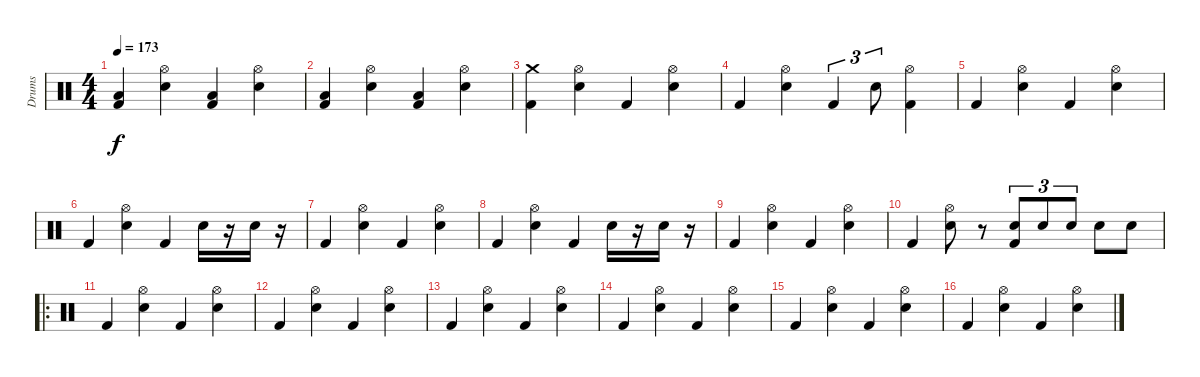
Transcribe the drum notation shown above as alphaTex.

\track ("Drums" "Drums") {instrument percussion}
\staff {score}
\articulation defaults
\ts (4 4)
\tempo 173
\clef neutral
\ks c
("Kick (hit) 2" "Low Floor Tom (hit)").4{dy f} ("Electric Snare (hit)" "Hi-Hat (open)").4 ("Kick (hit) 2" "Low Floor Tom (hit)").4 ("Electric Snare (hit)" "Hi-Hat (open)").4 |
("Kick (hit) 2" "Low Floor Tom (hit)").4 ("Electric Snare (hit)" "Hi-Hat (open)").4 ("Kick (hit) 2" "Low Floor Tom (hit)").4 ("Electric Snare (hit)" "Hi-Hat (open)").4 |
("Kick (hit) 2" "Crash medium (hit)").4 ("Electric Snare (hit)" "Hi-Hat (open)").4 "Kick (hit) 2".4 ("Electric Snare (hit)" "Hi-Hat (open)").4 |
"Kick (hit) 2".4 ("Hi-Hat (open)" "Electric Snare (hit)").4 "Kick (hit) 2".4{tu (3 2)} "Electric Snare (hit)".8{tu (3 2)} ("Hi-Hat (open)" "Kick (hit) 2").4 |
"Kick (hit) 2".4 ("Electric Snare (hit)" "Hi-Hat (open)").4 "Kick (hit) 2".4 ("Electric Snare (hit)" "Hi-Hat (open)").4 |
"Kick (hit) 2".4 ("Electric Snare (hit)" "Hi-Hat (open)").4 "Kick (hit) 2".4 "Electric Snare (hit)".16 r.16 "Electric Snare (hit)".16 r.16 |
"Kick (hit) 2".4 ("Electric Snare (hit)" "Hi-Hat (open)").4 "Kick (hit) 2".4 ("Electric Snare (hit)" "Hi-Hat (open)").4 |
"Kick (hit) 2".4 ("Electric Snare (hit)" "Hi-Hat (open)").4 "Kick (hit) 2".4 "Electric Snare (hit)".16 r.16 "Electric Snare (hit)".16 r.16 |
"Kick (hit) 2".4 ("Electric Snare (hit)" "Hi-Hat (open)").4 "Kick (hit) 2".4 ("Electric Snare (hit)" "Hi-Hat (open)").4 |
"Kick (hit) 2".4 ("Hi-Hat (open)" "Electric Snare (hit)").8 r.8 ("Electric Snare (hit)" "Kick (hit) 2").8{tu (3 2)} "Electric Snare (hit)".8{tu (3 2)} "Electric Snare (hit)".8{tu (3 2)} "Electric Snare (hit)".8 "Electric Snare (hit)".8 |
\ro "Kick (hit) 2".4
("Electric Snare (hit)" "Hi-Hat (open)").4 "Kick (hit) 2".4 ("Electric Snare (hit)" "Hi-Hat (open)").4 |
"Kick (hit) 2".4 ("Electric Snare (hit)" "Hi-Hat (open)").4 "Kick (hit) 2".4 ("Electric Snare (hit)" "Hi-Hat (open)").4 |
"Kick (hit) 2".4 ("Electric Snare (hit)" "Hi-Hat (open)").4 "Kick (hit) 2".4 ("Electric Snare (hit)" "Hi-Hat (open)").4 |
"Kick (hit) 2".4 ("Electric Snare (hit)" "Hi-Hat (open)").4 "Kick (hit) 2".4 ("Electric Snare (hit)" "Hi-Hat (open)").4 |
"Kick (hit) 2".4 ("Electric Snare (hit)" "Hi-Hat (open)").4 "Kick (hit) 2".4 ("Electric Snare (hit)" "Hi-Hat (open)").4 |
"Kick (hit) 2".4 ("Electric Snare (hit)" "Hi-Hat (open)").4 "Kick (hit) 2".4 ("Electric Snare (hit)" "Hi-Hat (open)").4
